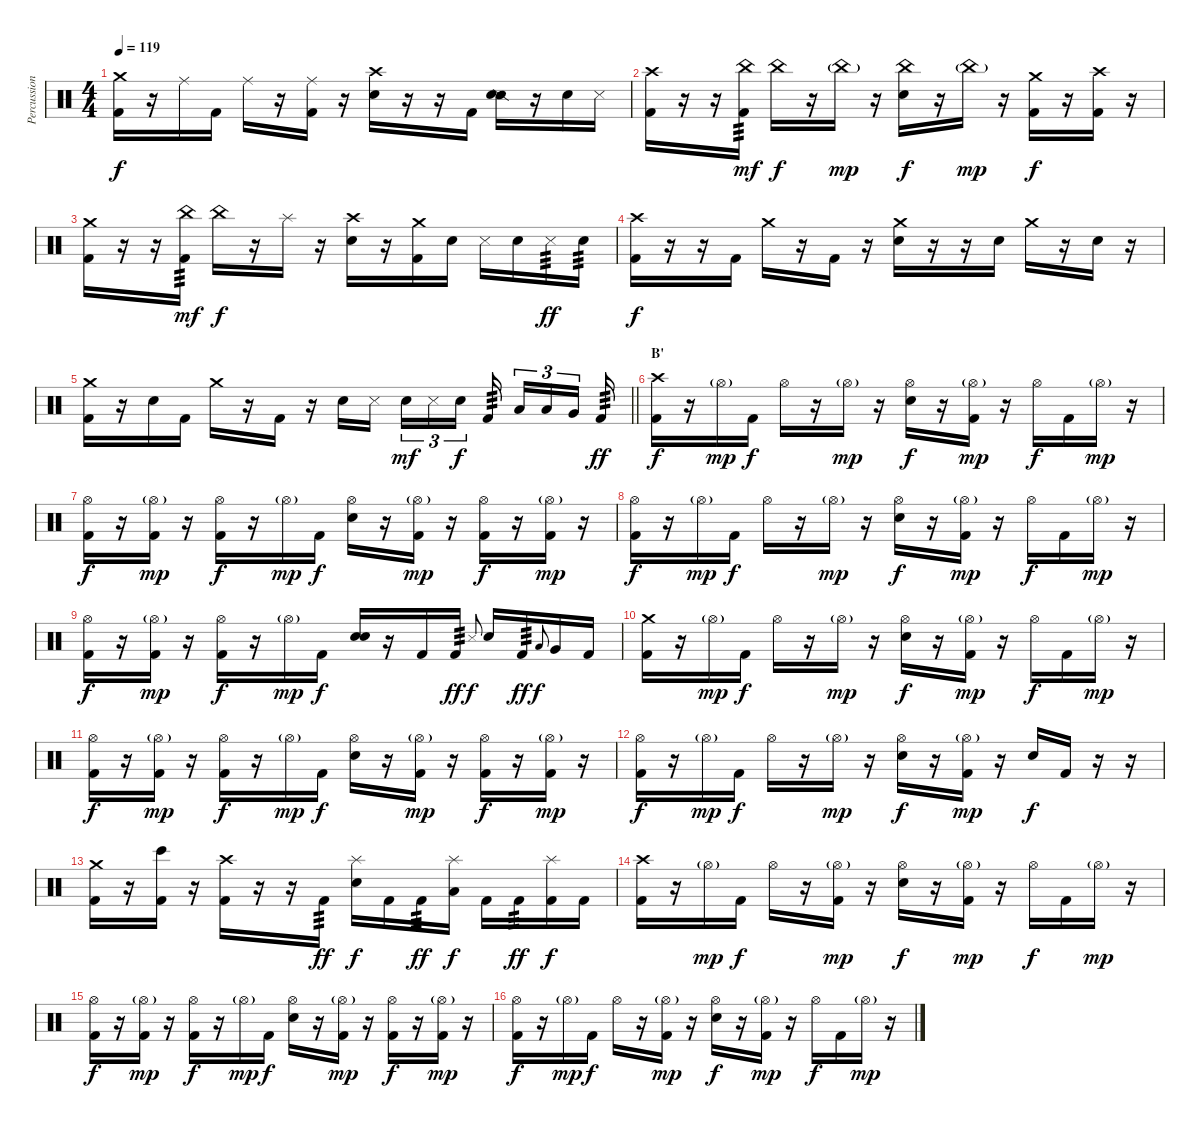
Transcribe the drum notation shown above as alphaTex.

\track ("Percussion" "Percussion") {instrument percussion}
\staff {score}
\articulation defaults
\ts (4 4)
\tempo 119
\clef neutral
\ks c
("Crash medium (hit)" "Kick (hit) 2").16{dy f} r.16 "Ride (middle)".16 "Kick (hit) 2".16 "Ride (middle)".16 r.16 ("Ride (middle)" "Kick (hit) 2").16 r.16 ("Crash high (hit)" "Snare (hit) 2").16 r.16 r.16 "Kick (hit) 2".16 ("Snare (side stick) 2" "Snare (hit) 2").16 r.16 "Snare (hit) 2".16 "Metronome (hit)".16 |
("Crash high (hit)" "Kick (hit) 2").16 r.16 r.16 ("China (hit)" "Kick (hit) 2").16{tp 3 dy mf} "China (hit)".16{dy f} r.16 "China (hit)"{g}.16{dy mp} r.16 ("China (hit)" "Snare (hit) 2").16{dy f} r.16 "China (hit)"{g}.16{dy mp} r.16 ("Crash medium (hit)" "Kick (hit) 2").16{dy f} r.16 ("Crash high (hit)" "Kick (hit) 2").16 r.16 |
("Crash medium (hit)" "Kick (hit) 2").16 r.16 r.16 ("China (hit)" "Kick (hit) 2").16{tp 3 dy mf} "China (hit)".16{dy f} r.16 "Splash (hit)".16 r.16 ("Crash high (hit)" "Snare (hit) 2").16 r.16 ("Crash medium (hit)" "Kick (hit) 2").16 "Snare (hit) 2".16 "Metronome (hit)".16 "Snare (hit) 2".16 "Metronome (hit)".16{tp 3 dy ff} "Snare (hit) 2".16{tp 3} |
("Crash high (hit)" "Kick (hit) 2").16{dy f} r.16 r.16 "Kick (hit) 2".16 "Crash medium (hit)".16 r.16 "Kick (hit) 2".16 r.16 ("Crash medium (hit)" "Snare (hit) 2").16 r.16 r.16 "Snare (hit) 2".16 "Crash medium (hit)".16 r.16 "Snare (hit) 2".16 r.16 |
\barLineRight lightlight
("Crash medium (hit)" "Kick (hit) 2").16 r.16 "Snare (hit) 2".16 "Kick (hit) 2".16 "Crash medium (hit)".16 r.16 "Kick (hit) 2".16 r.16 "Snare (hit) 2".16 "Metronome (hit)".16{beam splitsecondary} "Snare (hit) 2".16{tu (3 2) dy mf} "Metronome (hit)".16{tu (3 2)} "Snare (hit) 2".16{tu (3 2) dy f} "Kick (hit) 2".16{tp 3 beam splitsecondary} "Low Tom (hit)".16{tu (3 2)} "Low Tom (hit)".16{tu (3 2)} "Very Low Tom (hit)".16{tu (3 2) beam splitsecondary} "Kick (hit) 2".16{tp 3 dy ff} |
\section ("" "B'")
("Crash high (hit)" "Kick (hit) 2").16{dy f} r.16 "Hi-Hat (open)"{g}.16{dy mp} "Kick (hit) 2".16{dy f} "Hi-Hat (open)".16 r.16 "Hi-Hat (open)"{g}.16{dy mp} r.16 ("Hi-Hat (open)" "Snare (hit) 2").16{dy f} r.16 ("Hi-Hat (open)"{g} "Kick (hit) 2").16{dy mp} r.16 "Hi-Hat (open)".16{dy f} "Kick (hit) 2".16 "Hi-Hat (open)"{g}.16{dy mp} r.16 |
("Hi-Hat (open)" "Kick (hit) 2").16{dy f} r.16 ("Hi-Hat (open)"{g} "Kick (hit) 2").16{dy mp} r.16 ("Hi-Hat (open)" "Kick (hit) 2").16{dy f} r.16 "Hi-Hat (open)"{g}.16{dy mp} "Kick (hit) 2".16{dy f} ("Hi-Hat (open)" "Snare (hit) 2").16 r.16 ("Hi-Hat (open)"{g} "Kick (hit) 2").16{dy mp} r.16 ("Hi-Hat (open)" "Kick (hit) 2").16{dy f} r.16 ("Hi-Hat (open)"{g} "Kick (hit) 2").16{dy mp} r.16 |
("Hi-Hat (open)" "Kick (hit) 2").16{dy f} r.16 "Hi-Hat (open)"{g}.16{dy mp} "Kick (hit) 2".16{dy f} "Hi-Hat (open)".16 r.16 "Hi-Hat (open)"{g}.16{dy mp} r.16 ("Hi-Hat (open)" "Snare (hit) 2").16{dy f} r.16 ("Hi-Hat (open)"{g} "Kick (hit) 2").16{dy mp} r.16 "Hi-Hat (open)".16{dy f} "Kick (hit) 2".16 "Hi-Hat (open)"{g}.16{dy mp} r.16 |
("Hi-Hat (open)" "Kick (hit) 2").16{dy f} r.16 ("Hi-Hat (open)"{g} "Kick (hit) 2").16{dy mp} r.16 ("Hi-Hat (open)" "Kick (hit) 2").16{dy f} r.16 "Hi-Hat (open)"{g}.16{dy mp} "Kick (hit) 2".16{dy f} ("Snare (hit)" "Snare (hit) 2").16 r.16 "Kick (hit) 2".16 "Kick (hit) 2".16{tp 3 dy ff} "Metronome (hit)".8{gr onbeat dy f} "Snare (hit) 2".16 "Kick (hit) 2".16{tp 3 dy ff} "Low Tom (hit)".8{gr onbeat dy f} "Very Low Tom (hit)".16 "Kick (hit) 2".16 |
("Crash medium (hit)" "Kick (hit) 2").16 r.16 "Hi-Hat (open)"{g}.16{dy mp} "Kick (hit) 2".16{dy f} "Hi-Hat (open)".16 r.16 "Hi-Hat (open)"{g}.16{dy mp} r.16 ("Hi-Hat (open)" "Snare (hit) 2").16{dy f} r.16 ("Hi-Hat (open)"{g} "Kick (hit) 2").16{dy mp} r.16 "Hi-Hat (open)".16{dy f} "Kick (hit) 2".16 "Hi-Hat (open)"{g}.16{dy mp} r.16 |
("Hi-Hat (open)" "Kick (hit) 2").16{dy f} r.16 ("Hi-Hat (open)"{g} "Kick (hit) 2").16{dy mp} r.16 ("Hi-Hat (open)" "Kick (hit) 2").16{dy f} r.16 "Hi-Hat (open)"{g}.16{dy mp} "Kick (hit) 2".16{dy f} ("Hi-Hat (open)" "Snare (hit) 2").16 r.16 ("Hi-Hat (open)"{g} "Kick (hit) 2").16{dy mp} r.16 ("Hi-Hat (open)" "Kick (hit) 2").16{dy f} r.16 ("Hi-Hat (open)"{g} "Kick (hit) 2").16{dy mp} r.16 |
("Hi-Hat (open)" "Kick (hit) 2").16{dy f} r.16 "Hi-Hat (open)"{g}.16{dy mp} "Kick (hit) 2".16{dy f} "Hi-Hat (open)".16 r.16 "Hi-Hat (open)"{g}.16{dy mp} r.16 ("Hi-Hat (open)" "Snare (hit) 2").16{dy f} r.16 ("Hi-Hat (open)"{g} "Kick (hit) 2").16{dy mp} r.16 "Snare (hit)".16{dy f} "Kick (hit) 2".16 r.16 r.16 |
("Crash medium (hit)" "Kick (hit) 2").16 r.16 ("Bongo High (hit)" "Kick (hit) 2").16 r.16 ("Crash high (hit)" "Kick (hit) 2").16 r.16 r.16 "Kick (hit) 2".16{tp 3 dy ff} ("Splash (hit)" "Snare (hit) 2").16{dy f} "Kick (hit) 2".16 "Kick (hit) 2".16{tp 3 dy ff} ("Splash (hit)" "Low Tom (hit)").16{dy f} "Kick (hit) 2".16 "Kick (hit) 2".16{tp 3 dy ff} ("Splash (hit)" "Kick (hit) 2").16{dy f} "Kick (hit) 2".16 |
("Crash high (hit)" "Kick (hit) 2").16 r.16 "Hi-Hat (open)"{g}.16{dy mp} "Kick (hit) 2".16{dy f} "Hi-Hat (open)".16 r.16 ("Hi-Hat (open)"{g} "Kick (hit) 2").16{dy mp} r.16 ("Hi-Hat (open)" "Snare (hit) 2").16{dy f} r.16 ("Hi-Hat (open)"{g} "Kick (hit) 2").16{dy mp} r.16 "Hi-Hat (open)".16{dy f} "Kick (hit) 2".16 "Hi-Hat (open)"{g}.16{dy mp} r.16 |
("Hi-Hat (open)" "Kick (hit) 2").16{dy f} r.16 ("Hi-Hat (open)"{g} "Kick (hit) 2").16{dy mp} r.16 ("Hi-Hat (open)" "Kick (hit) 2").16{dy f} r.16 "Hi-Hat (open)"{g}.16{dy mp} "Kick (hit) 2".16{dy f} ("Hi-Hat (open)" "Snare (hit) 2").16 r.16 ("Hi-Hat (open)"{g} "Kick (hit) 2").16{dy mp} r.16 ("Hi-Hat (open)" "Kick (hit) 2").16{dy f} r.16 ("Hi-Hat (open)"{g} "Kick (hit) 2").16{dy mp} r.16 |
("Hi-Hat (open)" "Kick (hit) 2").16{dy f} r.16 "Hi-Hat (open)"{g}.16{dy mp} "Kick (hit) 2".16{dy f} "Hi-Hat (open)".16 r.16 ("Hi-Hat (open)"{g} "Kick (hit) 2").16{dy mp} r.16 ("Hi-Hat (open)" "Snare (hit) 2").16{dy f} r.16 ("Hi-Hat (open)"{g} "Kick (hit) 2").16{dy mp} r.16 "Hi-Hat (open)".16{dy f} "Kick (hit) 2".16 "Hi-Hat (open)"{g}.16{dy mp} r.16
